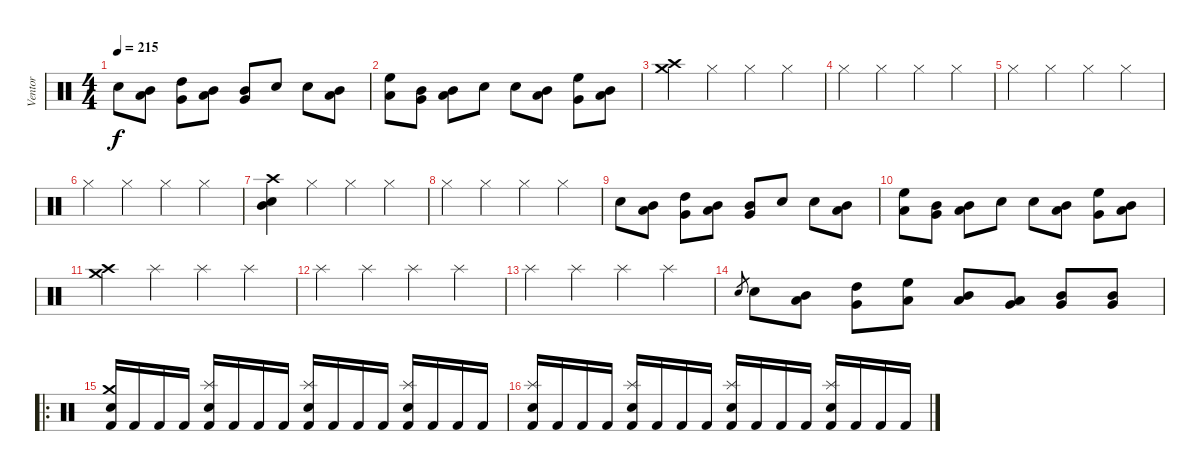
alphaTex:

\track ("Ventor" "Ventor") {instrument percussion}
\staff {score}
\articulation defaults
\ts (4 4)
\tempo 215
\clef neutral
\ks c "Electric Snare (hit)".8{dy f}
("Mid Tom (hit)" "Low Tom (hit)").8 ("High Tom (hit)" "Very Low Tom (hit)").8 ("Mid Tom (hit)" "Low Tom (hit)").8 ("Very Low Tom (hit)" "Mid Tom (hit)").8 "Electric Snare (hit)".8 "Electric Snare (hit)".8 ("Mid Tom (hit)" "Low Tom (hit)").8 |
("High Floor Tom (hit)" "Low Tom (hit)").8 ("Mid Tom (hit)" "Very Low Tom (hit)").8 ("Mid Tom (hit)" "Low Tom (hit)").8 "Electric Snare (hit)".8 "Electric Snare (hit)".8 ("Low Tom (hit)" "Mid Tom (hit)").8 ("High Floor Tom (hit)" "Very Low Tom (hit)").8 ("Mid Tom (hit)" "Low Tom (hit)").8 |
("Crash high (hit)" "Crash medium (hit)").4 "Hi-Hat (closed)".4 "Hi-Hat (closed)".4 "Hi-Hat (closed)".4 |
"Hi-Hat (closed)".4 "Hi-Hat (closed)".4 "Hi-Hat (closed)".4 "Hi-Hat (closed)".4 |
"Hi-Hat (closed)".4 "Hi-Hat (closed)".4 "Hi-Hat (closed)".4 "Hi-Hat (closed)".4 |
"Hi-Hat (closed)".4 "Hi-Hat (closed)".4 "Hi-Hat (closed)".4 "Hi-Hat (closed)".4 |
("Crash high (hit)" "Mid Tom (hit)" "Electric Snare (hit)").4 "Hi-Hat (closed)".4 "Hi-Hat (closed)".4 "Hi-Hat (closed)".4 |
"Hi-Hat (closed)".4 "Hi-Hat (closed)".4 "Hi-Hat (closed)".4 "Hi-Hat (closed)".4 |
"Electric Snare (hit)".8 ("Mid Tom (hit)" "Low Tom (hit)").8 ("High Tom (hit)" "Very Low Tom (hit)").8 ("Mid Tom (hit)" "Low Tom (hit)").8 ("Very Low Tom (hit)" "Mid Tom (hit)").8 "Electric Snare (hit)".8 "Electric Snare (hit)".8 ("Mid Tom (hit)" "Low Tom (hit)").8 |
("High Floor Tom (hit)" "Low Tom (hit)").8 ("Mid Tom (hit)" "Very Low Tom (hit)").8 ("Mid Tom (hit)" "Low Tom (hit)").8 "Electric Snare (hit)".8 "Electric Snare (hit)".8 ("Low Tom (hit)" "Mid Tom (hit)").8 ("High Floor Tom (hit)" "Very Low Tom (hit)").8 ("Mid Tom (hit)" "Low Tom (hit)").8 |
("Crash high (hit)" "Crash medium (hit)").4 "Splash (hit)".4 "Splash (hit)".4 "Splash (hit)".4 |
"Splash (hit)".4 "Splash (hit)".4 "Splash (hit)".4 "Splash (hit)".4 |
"Splash (hit)".4 "Splash (hit)".4 "Splash (hit)".4 "Splash (hit)".4 |
"Electric Snare (hit)".8{gr} "Electric Snare (hit)".8 ("Mid Tom (hit)" "Low Tom (hit)").8 ("High Tom (hit)" "Very Low Tom (hit)").8 ("High Floor Tom (hit)" "Low Tom (hit)").8 ("Low Tom (hit)" "Mid Tom (hit)").8 ("Very Low Tom (hit)" "Low Tom (hit)").8 ("Mid Tom (hit)" "Very Low Tom (hit)").8 ("Very Low Tom (hit)" "Mid Tom (hit)").8 |
\ro
("Crash medium (hit)" "Electric Snare (hit)" "Kick (hit) 2").16 "Kick (hit) 2".16 "Kick (hit) 2".16 "Kick (hit) 2".16 ("Splash (hit)" "Electric Snare (hit)" "Kick (hit) 2").16 "Kick (hit) 2".16 "Kick (hit) 2".16 "Kick (hit) 2".16 ("Splash (hit)" "Electric Snare (hit)" "Kick (hit) 2").16 "Kick (hit) 2".16 "Kick (hit) 2".16 "Kick (hit) 2".16 ("Splash (hit)" "Electric Snare (hit)" "Kick (hit) 2").16 "Kick (hit) 2".16 "Kick (hit) 2".16 "Kick (hit) 2".16 |
("Splash (hit)" "Electric Snare (hit)" "Kick (hit) 2").16 "Kick (hit) 2".16 "Kick (hit) 2".16 "Kick (hit) 2".16 ("Splash (hit)" "Electric Snare (hit)" "Kick (hit) 2").16 "Kick (hit) 2".16 "Kick (hit) 2".16 "Kick (hit) 2".16 ("Splash (hit)" "Electric Snare (hit)" "Kick (hit) 2").16 "Kick (hit) 2".16 "Kick (hit) 2".16 "Kick (hit) 2".16 ("Splash (hit)" "Electric Snare (hit)" "Kick (hit) 2").16 "Kick (hit) 2".16 "Kick (hit) 2".16 "Kick (hit) 2".16
